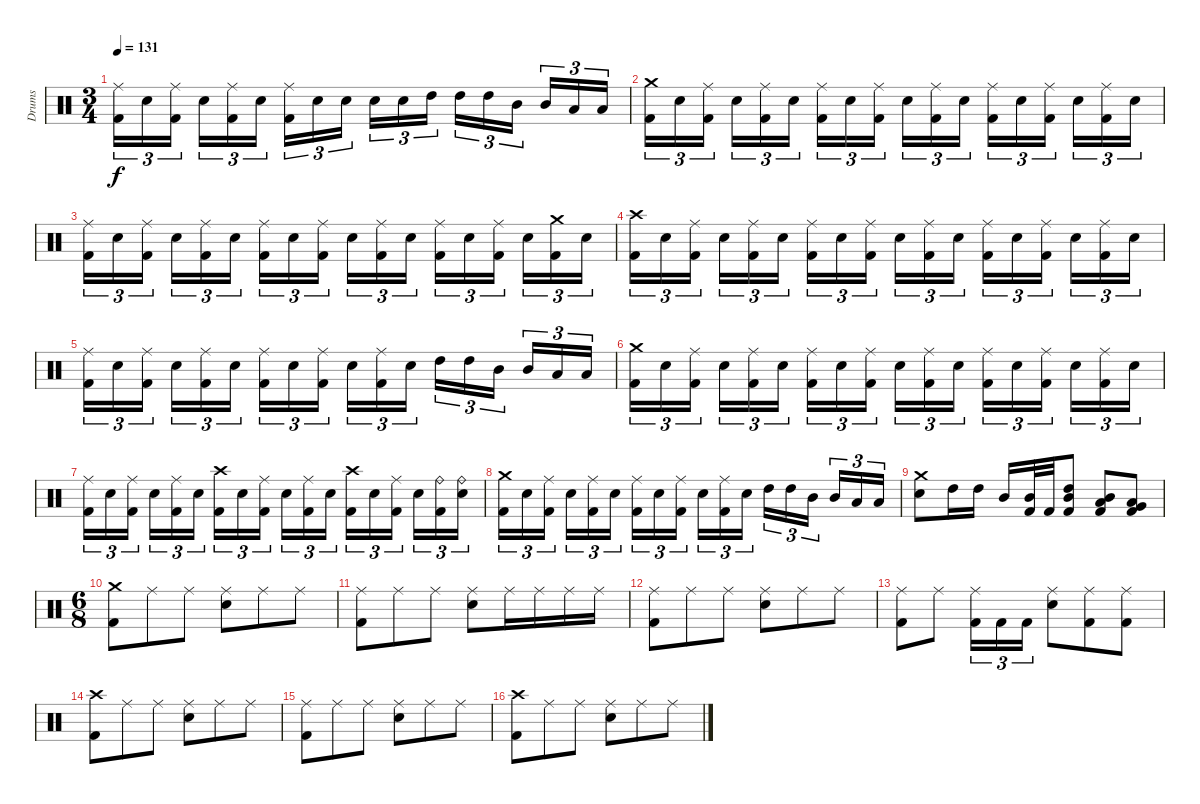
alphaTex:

\track ("Drums" "Drums") {instrument percussion}
\staff {score}
\articulation defaults
\ts (3 4)
\tempo 131
\clef neutral
\ks c
("Kick (hit) 2" "Ride (middle)").16{tu (3 2) dy f} "Electric Snare (hit)".16{tu (3 2)} ("Kick (hit) 2" "Ride (middle)").16{tu (3 2)} "Electric Snare (hit)".16{tu (3 2)} ("Kick (hit) 2" "Ride (middle)").16{tu (3 2)} "Electric Snare (hit)".16{tu (3 2)} ("Kick (hit) 2" "Ride (middle)").16{tu (3 2)} "Electric Snare (hit)".16{tu (3 2)} "Electric Snare (hit)".16{tu (3 2)} "Electric Snare (hit)".16{tu (3 2)} "Electric Snare (hit)".16{tu (3 2)} "High Tom (hit)".16{tu (3 2)} "High Tom (hit)".16{tu (3 2)} "High Tom (hit)".16{tu (3 2)} "Mid Tom (hit)".16{tu (3 2)} "Mid Tom (hit)".16{tu (3 2)} "Low Tom (hit)".16{tu (3 2)} "Low Tom (hit)".16{tu (3 2)} |
("Kick (hit) 2" "Crash medium (hit)").16{tu (3 2)} "Electric Snare (hit)".16{tu (3 2)} ("Kick (hit) 2" "Ride (middle)").16{tu (3 2)} "Electric Snare (hit)".16{tu (3 2)} ("Kick (hit) 2" "Ride (middle)").16{tu (3 2)} "Electric Snare (hit)".16{tu (3 2)} ("Kick (hit) 2" "Ride (middle)").16{tu (3 2)} "Electric Snare (hit)".16{tu (3 2)} ("Kick (hit) 2" "Ride (middle)").16{tu (3 2)} "Electric Snare (hit)".16{tu (3 2)} ("Kick (hit) 2" "Ride (middle)").16{tu (3 2)} "Electric Snare (hit)".16{tu (3 2)} ("Kick (hit) 2" "Ride (middle)").16{tu (3 2)} "Electric Snare (hit)".16{tu (3 2)} ("Kick (hit) 2" "Ride (middle)").16{tu (3 2)} "Electric Snare (hit)".16{tu (3 2)} ("Kick (hit) 2" "Ride (middle)").16{tu (3 2)} "Electric Snare (hit)".16{tu (3 2)} |
("Kick (hit) 2" "Ride (middle)").16{tu (3 2)} "Electric Snare (hit)".16{tu (3 2)} ("Kick (hit) 2" "Ride (middle)").16{tu (3 2)} "Electric Snare (hit)".16{tu (3 2)} ("Kick (hit) 2" "Ride (middle)").16{tu (3 2)} "Electric Snare (hit)".16{tu (3 2)} ("Kick (hit) 2" "Ride (middle)").16{tu (3 2)} "Electric Snare (hit)".16{tu (3 2)} ("Kick (hit) 2" "Ride (middle)").16{tu (3 2)} "Electric Snare (hit)".16{tu (3 2)} ("Kick (hit) 2" "Ride (middle)").16{tu (3 2)} "Electric Snare (hit)".16{tu (3 2)} ("Kick (hit) 2" "Ride (middle)").16{tu (3 2)} "Electric Snare (hit)".16{tu (3 2)} ("Kick (hit) 2" "Ride (middle)").16{tu (3 2)} "Electric Snare (hit)".16{tu (3 2)} ("Kick (hit) 2" "Crash medium (hit)").16{tu (3 2)} "Electric Snare (hit)".16{tu (3 2)} |
("Kick (hit) 2" "Crash high (hit)").16{tu (3 2)} "Electric Snare (hit)".16{tu (3 2)} ("Kick (hit) 2" "Ride (middle)").16{tu (3 2)} "Electric Snare (hit)".16{tu (3 2)} ("Kick (hit) 2" "Ride (middle)").16{tu (3 2)} "Electric Snare (hit)".16{tu (3 2)} ("Kick (hit) 2" "Ride (middle)").16{tu (3 2)} "Electric Snare (hit)".16{tu (3 2)} ("Kick (hit) 2" "Ride (middle)").16{tu (3 2)} "Electric Snare (hit)".16{tu (3 2)} ("Kick (hit) 2" "Ride (middle)").16{tu (3 2)} "Electric Snare (hit)".16{tu (3 2)} ("Kick (hit) 2" "Ride (middle)").16{tu (3 2)} "Electric Snare (hit)".16{tu (3 2)} ("Kick (hit) 2" "Ride (middle)").16{tu (3 2)} "Electric Snare (hit)".16{tu (3 2)} ("Kick (hit) 2" "Ride (middle)").16{tu (3 2)} "Electric Snare (hit)".16{tu (3 2)} |
("Kick (hit) 2" "Ride (middle)").16{tu (3 2)} "Electric Snare (hit)".16{tu (3 2)} ("Kick (hit) 2" "Ride (middle)").16{tu (3 2)} "Electric Snare (hit)".16{tu (3 2)} ("Kick (hit) 2" "Ride (middle)").16{tu (3 2)} "Electric Snare (hit)".16{tu (3 2)} ("Kick (hit) 2" "Ride (middle)").16{tu (3 2)} "Electric Snare (hit)".16{tu (3 2)} ("Kick (hit) 2" "Ride (middle)").16{tu (3 2)} "Electric Snare (hit)".16{tu (3 2)} ("Kick (hit) 2" "Ride (middle)").16{tu (3 2)} "Electric Snare (hit)".16{tu (3 2)} "High Tom (hit)".16{tu (3 2)} "High Tom (hit)".16{tu (3 2)} "Mid Tom (hit)".16{tu (3 2)} "Mid Tom (hit)".16{tu (3 2)} "Low Tom (hit)".16{tu (3 2)} "Low Tom (hit)".16{tu (3 2)} |
("Kick (hit) 2" "Crash medium (hit)").16{tu (3 2)} "Electric Snare (hit)".16{tu (3 2)} ("Kick (hit) 2" "Ride (middle)").16{tu (3 2)} "Electric Snare (hit)".16{tu (3 2)} ("Kick (hit) 2" "Ride (middle)").16{tu (3 2)} "Electric Snare (hit)".16{tu (3 2)} ("Kick (hit) 2" "Ride (middle)").16{tu (3 2)} "Electric Snare (hit)".16{tu (3 2)} ("Kick (hit) 2" "Ride (middle)").16{tu (3 2)} "Electric Snare (hit)".16{tu (3 2)} ("Kick (hit) 2" "Ride (middle)").16{tu (3 2)} "Electric Snare (hit)".16{tu (3 2)} ("Kick (hit) 2" "Ride (middle)").16{tu (3 2)} "Electric Snare (hit)".16{tu (3 2)} ("Kick (hit) 2" "Ride (middle)").16{tu (3 2)} "Electric Snare (hit)".16{tu (3 2)} ("Kick (hit) 2" "Ride (middle)").16{tu (3 2)} "Electric Snare (hit)".16{tu (3 2)} |
("Kick (hit) 2" "Ride (middle)").16{tu (3 2)} "Electric Snare (hit)".16{tu (3 2)} ("Kick (hit) 2" "Ride (middle)").16{tu (3 2)} "Electric Snare (hit)".16{tu (3 2)} ("Kick (hit) 2" "Ride (middle)").16{tu (3 2)} "Electric Snare (hit)".16{tu (3 2)} ("Kick (hit) 2" "Crash high (hit)").16{tu (3 2)} "Electric Snare (hit)".16{tu (3 2)} ("Kick (hit) 2" "Ride (middle)").16{tu (3 2)} "Electric Snare (hit)".16{tu (3 2)} ("Kick (hit) 2" "Ride (middle)").16{tu (3 2)} "Electric Snare (hit)".16{tu (3 2)} ("Kick (hit) 2" "Crash high (hit)").16{tu (3 2)} "Electric Snare (hit)".16{tu (3 2)} ("Kick (hit) 2" "Ride (middle)").16{tu (3 2)} "Electric Snare (hit)".16{tu (3 2)} ("Kick (hit) 2" "Ride (bell)").16{tu (3 2)} ("Electric Snare (hit)" "Ride (bell)").16{tu (3 2)} |
("Kick (hit) 2" "Crash medium (hit)").16{tu (3 2)} "Electric Snare (hit)".16{tu (3 2)} ("Kick (hit) 2" "Ride (middle)").16{tu (3 2)} "Electric Snare (hit)".16{tu (3 2)} ("Kick (hit) 2" "Ride (middle)").16{tu (3 2)} "Electric Snare (hit)".16{tu (3 2)} ("Kick (hit) 2" "Ride (middle)").16{tu (3 2)} "Electric Snare (hit)".16{tu (3 2)} ("Kick (hit) 2" "Ride (middle)").16{tu (3 2)} "Electric Snare (hit)".16{tu (3 2)} ("Kick (hit) 2" "Ride (middle)").16{tu (3 2)} "Electric Snare (hit)".16{tu (3 2)} "High Tom (hit)".16{tu (3 2)} "High Tom (hit)".16{tu (3 2)} "Mid Tom (hit)".16{tu (3 2)} "Mid Tom (hit)".16{tu (3 2)} "Low Tom (hit)".16{tu (3 2)} "Low Tom (hit)".16{tu (3 2)} |
("Electric Snare (hit)" "Crash medium (hit)").8 "High Tom (hit)".16 "High Tom (hit)".16 "Mid Tom (hit)".16 ("Kick (hit) 2" "Mid Tom (hit)").32 "Kick (hit) 2".32 ("Kick (hit) 2" "High Tom (hit)" "Mid Tom (hit)").8 ("Kick (hit) 2" "Mid Tom (hit)" "Low Tom (hit)").8 ("Kick (hit) 2" "Low Tom (hit)" "Very Low Tom (hit)").8 |
\ts (6 8)
("Kick (hit) 2" "Crash medium (hit)").8 "Ride (middle)".8 "Ride (middle)".8 ("Electric Snare (hit)" "Ride (middle)").8 "Ride (middle)".8 "Ride (middle)".8 |
("Kick (hit) 2" "Ride (middle)").8 "Ride (middle)".8 "Ride (middle)".8 ("Electric Snare (hit)" "Ride (middle)").8 "Ride (middle)".16 "Ride (middle)".16 "Ride (middle)".16 "Ride (middle)".16 |
("Kick (hit) 2" "Ride (middle)").8 "Ride (middle)".8 "Ride (middle)".8 ("Electric Snare (hit)" "Ride (middle)").8 "Ride (middle)".8 "Ride (middle)".8 |
("Kick (hit) 2" "Ride (middle)").8 "Ride (middle)".8 ("Kick (hit) 2" "Ride (middle)").16{tu (3 2)} "Kick (hit) 2".16{tu (3 2)} "Kick (hit) 2".16{tu (3 2)} ("Electric Snare (hit)" "Ride (middle)").8 ("Kick (hit) 2" "Ride (middle)").8 ("Kick (hit) 2" "Ride (middle)").8 |
("Kick (hit) 2" "Crash high (hit)").8 "Ride (middle)".8 "Ride (middle)".8 ("Electric Snare (hit)" "Ride (middle)").8 "Ride (middle)".8 "Ride (middle)".8 |
("Kick (hit) 2" "Ride (middle)").8 "Ride (middle)".8 "Ride (middle)".8 ("Electric Snare (hit)" "Ride (middle)").8 "Ride (middle)".8 "Ride (middle)".8 |
("Kick (hit) 2" "Crash high (hit)").8 "Ride (middle)".8 "Ride (middle)".8 ("Electric Snare (hit)" "Ride (middle)").8 "Ride (middle)".8 "Ride (middle)".8
